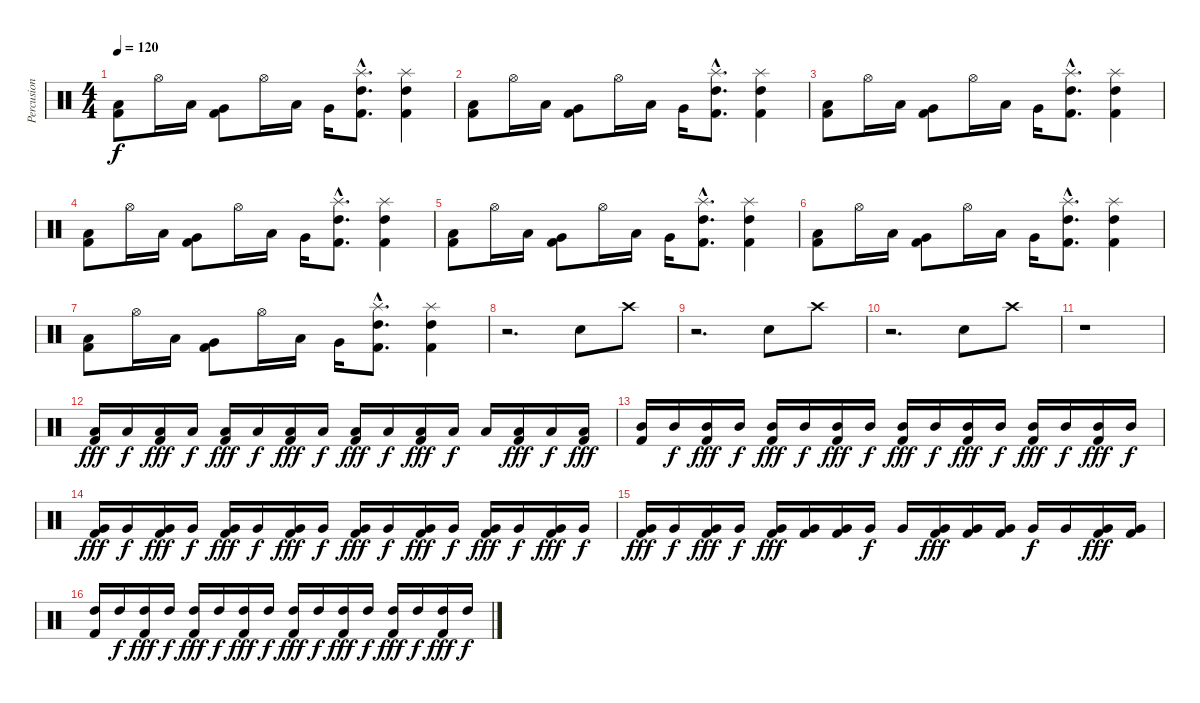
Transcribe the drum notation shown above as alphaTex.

\track ("Percusion" "Percusion") {instrument percussion}
\staff {score}
\articulation defaults
\ts (4 4)
\tempo 120
\clef neutral
\ks c
("Low Tom (hit)" "Kick (hit) 2").8{dy f} "Hi-Hat (open)".16 "Low Tom (hit)".16 ("Very Low Tom (hit)" "Kick (hit) 2").8 "Hi-Hat (open)".16 "Low Tom (hit)".16 "Very Low Tom (hit)".16 ("High Tom (hit)"{hac} "Splash (hit)"{hac} "Kick (hit) 2"{hac}).8{d} ("High Tom (hit)" "Splash (hit)" "Kick (hit) 2").4 |
("Low Tom (hit)" "Kick (hit) 2").8 "Hi-Hat (open)".16 "Low Tom (hit)".16 ("Very Low Tom (hit)" "Kick (hit) 2").8 "Hi-Hat (open)".16 "Low Tom (hit)".16 "Very Low Tom (hit)".16 ("High Tom (hit)"{hac} "Splash (hit)"{hac} "Kick (hit) 2"{hac}).8{d} ("High Tom (hit)" "Splash (hit)" "Kick (hit) 2").4 |
("Low Tom (hit)" "Kick (hit) 2").8 "Hi-Hat (open)".16 "Low Tom (hit)".16 ("Very Low Tom (hit)" "Kick (hit) 2").8 "Hi-Hat (open)".16 "Low Tom (hit)".16 "Very Low Tom (hit)".16 ("High Tom (hit)"{hac} "Splash (hit)"{hac} "Kick (hit) 2"{hac}).8{d} ("High Tom (hit)" "Splash (hit)" "Kick (hit) 2").4 |
("Low Tom (hit)" "Kick (hit) 2").8 "Hi-Hat (open)".16 "Low Tom (hit)".16 ("Very Low Tom (hit)" "Kick (hit) 2").8 "Hi-Hat (open)".16 "Low Tom (hit)".16 "Very Low Tom (hit)".16 ("High Tom (hit)"{hac} "Splash (hit)"{hac} "Kick (hit) 2"{hac}).8{d} ("High Tom (hit)" "Splash (hit)" "Kick (hit) 2").4 |
("Low Tom (hit)" "Kick (hit) 2").8 "Hi-Hat (open)".16 "Low Tom (hit)".16 ("Very Low Tom (hit)" "Kick (hit) 2").8 "Hi-Hat (open)".16 "Low Tom (hit)".16 "Very Low Tom (hit)".16 ("High Tom (hit)"{hac} "Splash (hit)"{hac} "Kick (hit) 2"{hac}).8{d} ("High Tom (hit)" "Splash (hit)" "Kick (hit) 2").4 |
("Low Tom (hit)" "Kick (hit) 2").8 "Hi-Hat (open)".16 "Low Tom (hit)".16 ("Very Low Tom (hit)" "Kick (hit) 2").8 "Hi-Hat (open)".16 "Low Tom (hit)".16 "Very Low Tom (hit)".16 ("High Tom (hit)"{hac} "Splash (hit)"{hac} "Kick (hit) 2"{hac}).8{d} ("High Tom (hit)" "Splash (hit)" "Kick (hit) 2").4 |
("Low Tom (hit)" "Kick (hit) 2").8 "Hi-Hat (open)".16 "Low Tom (hit)".16 ("Very Low Tom (hit)" "Kick (hit) 2").8 "Hi-Hat (open)".16 "Low Tom (hit)".16 "Very Low Tom (hit)".16 ("High Tom (hit)"{hac} "Splash (hit)"{hac} "Kick (hit) 2"{hac}).8{d} ("High Tom (hit)" "Splash (hit)" "Kick (hit) 2").4 |
r.2{d} "Snare (hit) 2".8 "Crash high (hit)".8 |
r.2{d} "Snare (hit) 2".8 "Crash high (hit)".8 |
r.2{d} "Snare (hit) 2".8 "Crash high (hit)".8 |
r.1 |
("Low Tom (hit)" "Kick (hit) 2").16{dy fff volume 9} "Low Tom (hit)".16{dy f} ("Low Tom (hit)" "Kick (hit) 2").16{dy fff} "Low Tom (hit)".16{dy f} ("Low Tom (hit)" "Kick (hit) 2").16{dy fff} "Low Tom (hit)".16{dy f} ("Low Tom (hit)" "Kick (hit) 2").16{dy fff} "Low Tom (hit)".16{dy f} ("Low Tom (hit)" "Kick (hit) 2").16{dy fff} "Low Tom (hit)".16{dy f} ("Low Tom (hit)" "Kick (hit) 2").16{dy fff} "Low Tom (hit)".16{dy f} "Low Tom (hit)".16 ("Low Tom (hit)" "Kick (hit) 2").16{dy fff} "Low Tom (hit)".16{dy f} ("Low Tom (hit)" "Kick (hit) 2").16{dy fff} |
("Mid Tom (hit)" "Kick (hit) 2").16 "Mid Tom (hit)".16{dy f} ("Mid Tom (hit)" "Kick (hit) 2").16{dy fff} "Mid Tom (hit)".16{dy f} ("Mid Tom (hit)" "Kick (hit) 2").16{dy fff} "Mid Tom (hit)".16{dy f} ("Mid Tom (hit)" "Kick (hit) 2").16{dy fff} "Mid Tom (hit)".16{dy f} ("Mid Tom (hit)" "Kick (hit) 2").16{dy fff} "Mid Tom (hit)".16{dy f} ("Mid Tom (hit)" "Kick (hit) 2").16{dy fff} "Mid Tom (hit)".16{dy f} ("Mid Tom (hit)" "Kick (hit) 2").16{dy fff} "Mid Tom (hit)".16{dy f} ("Mid Tom (hit)" "Kick (hit) 2").16{dy fff} "Mid Tom (hit)".16{dy f} |
("Very Low Tom (hit)" "Kick (hit) 2").16{dy fff} "Very Low Tom (hit)".16{dy f} ("Very Low Tom (hit)" "Kick (hit) 2").16{dy fff} "Very Low Tom (hit)".16{dy f} ("Very Low Tom (hit)" "Kick (hit) 2").16{dy fff} "Very Low Tom (hit)".16{dy f} ("Very Low Tom (hit)" "Kick (hit) 2").16{dy fff} "Very Low Tom (hit)".16{dy f} ("Very Low Tom (hit)" "Kick (hit) 2").16{dy fff} "Very Low Tom (hit)".16{dy f} ("Very Low Tom (hit)" "Kick (hit) 2").16{dy fff} "Very Low Tom (hit)".16{dy f} ("Very Low Tom (hit)" "Kick (hit) 2").16{dy fff} "Very Low Tom (hit)".16{dy f} ("Very Low Tom (hit)" "Kick (hit) 2").16{dy fff} "Very Low Tom (hit)".16{dy f} |
("Very Low Tom (hit)" "Kick (hit) 2").16{dy fff} "Very Low Tom (hit)".16{dy f} ("Very Low Tom (hit)" "Kick (hit) 2").16{dy fff} "Very Low Tom (hit)".16{dy f} ("Very Low Tom (hit)" "Kick (hit) 2").16{dy fff} ("Very Low Tom (hit)" "Kick (hit) 2").16 ("Very Low Tom (hit)" "Kick (hit) 2").16 "Very Low Tom (hit)".16{dy f} "Very Low Tom (hit)".16 ("Very Low Tom (hit)" "Kick (hit) 2").16{dy fff} ("Very Low Tom (hit)" "Kick (hit) 2").16 ("Very Low Tom (hit)" "Kick (hit) 2").16 "Very Low Tom (hit)".16{dy f} "Very Low Tom (hit)".16 ("Very Low Tom (hit)" "Kick (hit) 2").16{dy fff} ("Very Low Tom (hit)" "Kick (hit) 2").16 |
("High Tom (hit)" "Kick (hit) 2").16 "High Tom (hit)".16{dy f} ("High Tom (hit)" "Kick (hit) 2").16{dy fff} "High Tom (hit)".16{dy f} ("High Tom (hit)" "Kick (hit) 2").16{dy fff} "High Tom (hit)".16{dy f} ("High Tom (hit)" "Kick (hit) 2").16{dy fff} "High Tom (hit)".16{dy f} ("High Tom (hit)" "Kick (hit) 2").16{dy fff} "High Tom (hit)".16{dy f} ("High Tom (hit)" "Kick (hit) 2").16{dy fff} "High Tom (hit)".16{dy f} ("High Tom (hit)" "Kick (hit) 2").16{dy fff} "High Tom (hit)".16{dy f} ("High Tom (hit)" "Kick (hit) 2").16{dy fff} "High Tom (hit)".16{dy f}
